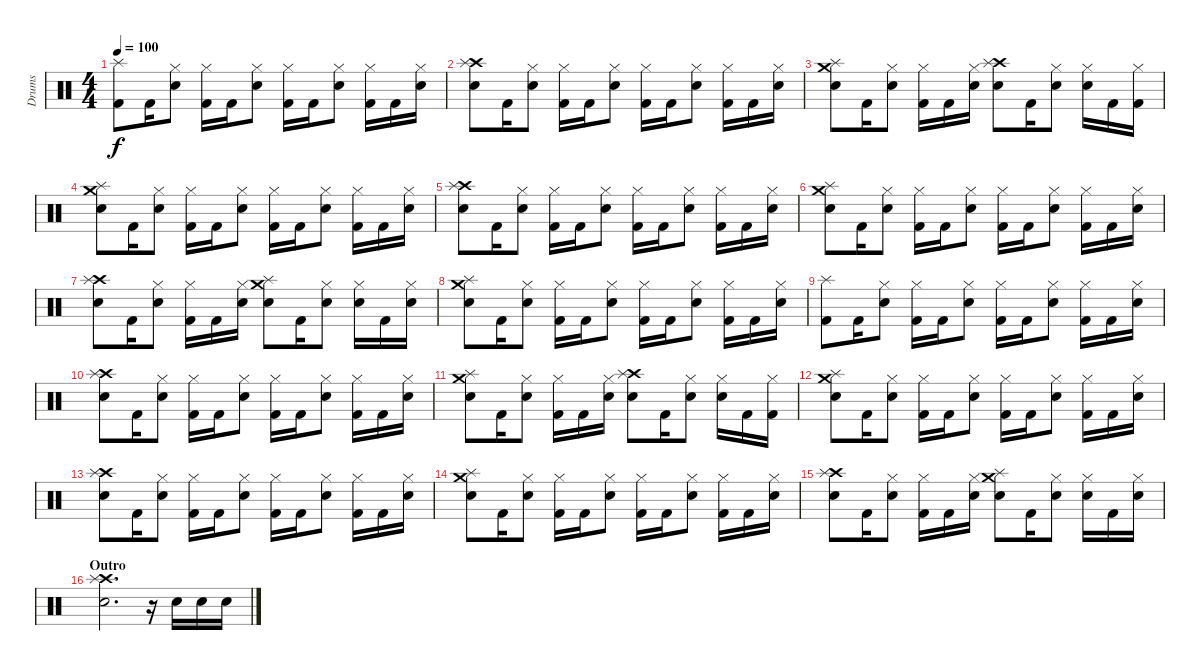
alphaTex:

\track ("Drums" "Drums") {instrument percussion}
\staff {score}
\articulation defaults
\ts (4 4)
\tempo 100
\clef neutral
\ks c
("Splash (hit)" "Kick (hit) 2").8{dy f} "Kick (hit) 2".16 ("Hi-Hat (closed)" "Snare (hit) 2").8 ("Hi-Hat (closed)" "Kick (hit) 2").16 "Kick (hit) 2".16 ("Hi-Hat (closed)" "Snare (hit) 2").8 ("Hi-Hat (closed)" "Kick (hit) 2").16 "Kick (hit) 2".16 ("Hi-Hat (closed)" "Snare (hit) 2").8 ("Hi-Hat (closed)" "Kick (hit) 2").16 "Kick (hit) 2".16 ("Hi-Hat (closed)" "Snare (hit) 2").16 |
("Crash high (hit)" "Splash (hit)" "Snare (hit) 2").8 "Kick (hit) 2".16 ("Hi-Hat (closed)" "Snare (hit) 2").8 ("Hi-Hat (closed)" "Kick (hit) 2").16 "Kick (hit) 2".16 ("Hi-Hat (closed)" "Snare (hit) 2").8 ("Hi-Hat (closed)" "Kick (hit) 2").16 "Kick (hit) 2".16 ("Hi-Hat (closed)" "Snare (hit) 2").8 ("Hi-Hat (closed)" "Kick (hit) 2").16 "Kick (hit) 2".16 ("Hi-Hat (closed)" "Snare (hit) 2").16 |
("Crash medium (hit)" "Splash (hit)" "Snare (hit) 2").8 "Kick (hit) 2".16 ("Hi-Hat (closed)" "Snare (hit) 2").8 ("Hi-Hat (closed)" "Kick (hit) 2").16 "Kick (hit) 2".16 ("Hi-Hat (closed)" "Snare (hit) 2").16 ("Crash high (hit)" "Splash (hit)" "Snare (hit) 2").8 "Kick (hit) 2".16 ("Hi-Hat (closed)" "Snare (hit) 2").8 ("Hi-Hat (closed)" "Snare (hit) 2").16 "Kick (hit) 2".16 ("Hi-Hat (closed)" "Kick (hit) 2").16 |
("Crash medium (hit)" "Splash (hit)" "Snare (hit) 2").8 "Kick (hit) 2".16 ("Hi-Hat (closed)" "Snare (hit) 2").8 ("Hi-Hat (closed)" "Kick (hit) 2").16 "Kick (hit) 2".16 ("Hi-Hat (closed)" "Snare (hit) 2").8 ("Hi-Hat (closed)" "Kick (hit) 2").16 "Kick (hit) 2".16 ("Hi-Hat (closed)" "Snare (hit) 2").8 ("Hi-Hat (closed)" "Kick (hit) 2").16 "Kick (hit) 2".16 ("Hi-Hat (closed)" "Snare (hit) 2").16 |
("Crash high (hit)" "Splash (hit)" "Snare (hit) 2").8 "Kick (hit) 2".16 ("Hi-Hat (closed)" "Snare (hit) 2").8 ("Hi-Hat (closed)" "Kick (hit) 2").16 "Kick (hit) 2".16 ("Hi-Hat (closed)" "Snare (hit) 2").8 ("Hi-Hat (closed)" "Kick (hit) 2").16 "Kick (hit) 2".16 ("Hi-Hat (closed)" "Snare (hit) 2").8 ("Hi-Hat (closed)" "Kick (hit) 2").16 "Kick (hit) 2".16 ("Hi-Hat (closed)" "Snare (hit) 2").16 |
("Crash medium (hit)" "Splash (hit)" "Snare (hit) 2").8 "Kick (hit) 2".16 ("Hi-Hat (closed)" "Snare (hit) 2").8 ("Hi-Hat (closed)" "Kick (hit) 2").16 "Kick (hit) 2".16 ("Hi-Hat (closed)" "Snare (hit) 2").8 ("Hi-Hat (closed)" "Kick (hit) 2").16 "Kick (hit) 2".16 ("Hi-Hat (closed)" "Snare (hit) 2").8 ("Hi-Hat (closed)" "Kick (hit) 2").16 "Kick (hit) 2".16 ("Hi-Hat (closed)" "Snare (hit) 2").16 |
("Crash high (hit)" "Splash (hit)" "Snare (hit) 2").8 "Kick (hit) 2".16 ("Hi-Hat (closed)" "Snare (hit) 2").8 ("Hi-Hat (closed)" "Kick (hit) 2").16 "Kick (hit) 2".16 ("Hi-Hat (closed)" "Snare (hit) 2").16 ("Crash medium (hit)" "Splash (hit)" "Snare (hit) 2").8 "Kick (hit) 2".16 ("Hi-Hat (closed)" "Snare (hit) 2").8 ("Hi-Hat (closed)" "Snare (hit) 2").16 "Kick (hit) 2".16 ("Hi-Hat (closed)" "Snare (hit) 2").16 |
("Crash medium (hit)" "Splash (hit)" "Snare (hit) 2").8 "Kick (hit) 2".16 ("Hi-Hat (closed)" "Snare (hit) 2").8 ("Hi-Hat (closed)" "Kick (hit) 2").16 "Kick (hit) 2".16 ("Hi-Hat (closed)" "Snare (hit) 2").8 ("Hi-Hat (closed)" "Kick (hit) 2").16 "Kick (hit) 2".16 ("Hi-Hat (closed)" "Snare (hit) 2").8 ("Hi-Hat (closed)" "Kick (hit) 2").16 "Kick (hit) 2".16 ("Hi-Hat (closed)" "Snare (hit) 2").16 |
("Splash (hit)" "Kick (hit) 2").8 "Kick (hit) 2".16 ("Hi-Hat (closed)" "Snare (hit) 2").8 ("Hi-Hat (closed)" "Kick (hit) 2").16 "Kick (hit) 2".16 ("Hi-Hat (closed)" "Snare (hit) 2").8 ("Hi-Hat (closed)" "Kick (hit) 2").16 "Kick (hit) 2".16 ("Hi-Hat (closed)" "Snare (hit) 2").8 ("Hi-Hat (closed)" "Kick (hit) 2").16 "Kick (hit) 2".16 ("Hi-Hat (closed)" "Snare (hit) 2").16 |
("Crash high (hit)" "Splash (hit)" "Snare (hit) 2").8 "Kick (hit) 2".16 ("Hi-Hat (closed)" "Snare (hit) 2").8 ("Hi-Hat (closed)" "Kick (hit) 2").16 "Kick (hit) 2".16 ("Hi-Hat (closed)" "Snare (hit) 2").8 ("Hi-Hat (closed)" "Kick (hit) 2").16 "Kick (hit) 2".16 ("Hi-Hat (closed)" "Snare (hit) 2").8 ("Hi-Hat (closed)" "Kick (hit) 2").16 "Kick (hit) 2".16 ("Hi-Hat (closed)" "Snare (hit) 2").16 |
("Crash medium (hit)" "Splash (hit)" "Snare (hit) 2").8 "Kick (hit) 2".16 ("Hi-Hat (closed)" "Snare (hit) 2").8 ("Hi-Hat (closed)" "Kick (hit) 2").16 "Kick (hit) 2".16 ("Hi-Hat (closed)" "Snare (hit) 2").16 ("Crash high (hit)" "Splash (hit)" "Snare (hit) 2").8 "Kick (hit) 2".16 ("Hi-Hat (closed)" "Snare (hit) 2").8 ("Hi-Hat (closed)" "Snare (hit) 2").16 "Kick (hit) 2".16 ("Hi-Hat (closed)" "Kick (hit) 2").16 |
("Crash medium (hit)" "Splash (hit)" "Snare (hit) 2").8 "Kick (hit) 2".16 ("Hi-Hat (closed)" "Snare (hit) 2").8 ("Hi-Hat (closed)" "Kick (hit) 2").16 "Kick (hit) 2".16 ("Hi-Hat (closed)" "Snare (hit) 2").8 ("Hi-Hat (closed)" "Kick (hit) 2").16 "Kick (hit) 2".16 ("Hi-Hat (closed)" "Snare (hit) 2").8 ("Hi-Hat (closed)" "Kick (hit) 2").16 "Kick (hit) 2".16 ("Hi-Hat (closed)" "Snare (hit) 2").16 |
("Crash high (hit)" "Splash (hit)" "Snare (hit) 2").8 "Kick (hit) 2".16 ("Hi-Hat (closed)" "Snare (hit) 2").8 ("Hi-Hat (closed)" "Kick (hit) 2").16 "Kick (hit) 2".16 ("Hi-Hat (closed)" "Snare (hit) 2").8 ("Hi-Hat (closed)" "Kick (hit) 2").16 "Kick (hit) 2".16 ("Hi-Hat (closed)" "Snare (hit) 2").8 ("Hi-Hat (closed)" "Kick (hit) 2").16 "Kick (hit) 2".16 ("Hi-Hat (closed)" "Snare (hit) 2").16 |
("Crash medium (hit)" "Splash (hit)" "Snare (hit) 2").8 "Kick (hit) 2".16 ("Hi-Hat (closed)" "Snare (hit) 2").8 ("Hi-Hat (closed)" "Kick (hit) 2").16 "Kick (hit) 2".16 ("Hi-Hat (closed)" "Snare (hit) 2").8 ("Hi-Hat (closed)" "Kick (hit) 2").16 "Kick (hit) 2".16 ("Hi-Hat (closed)" "Snare (hit) 2").8 ("Hi-Hat (closed)" "Kick (hit) 2").16 "Kick (hit) 2".16 ("Hi-Hat (closed)" "Snare (hit) 2").16 |
("Crash high (hit)" "Splash (hit)" "Snare (hit) 2").8 "Kick (hit) 2".16 ("Hi-Hat (closed)" "Snare (hit) 2").8 ("Hi-Hat (closed)" "Kick (hit) 2").16 "Kick (hit) 2".16 ("Hi-Hat (closed)" "Snare (hit) 2").16 ("Crash medium (hit)" "Splash (hit)" "Snare (hit) 2").8 "Kick (hit) 2".16 ("Hi-Hat (closed)" "Snare (hit) 2").8 ("Hi-Hat (closed)" "Snare (hit) 2").16 "Kick (hit) 2".16 ("Hi-Hat (closed)" "Snare (hit) 2").16 |
\section ("" "Outro")
("Crash high (hit)" "Splash (hit)" "Snare (hit) 2").2{d} r.16 "Snare (hit) 2".16 "Snare (hit) 2".16 "Snare (hit) 2".16
